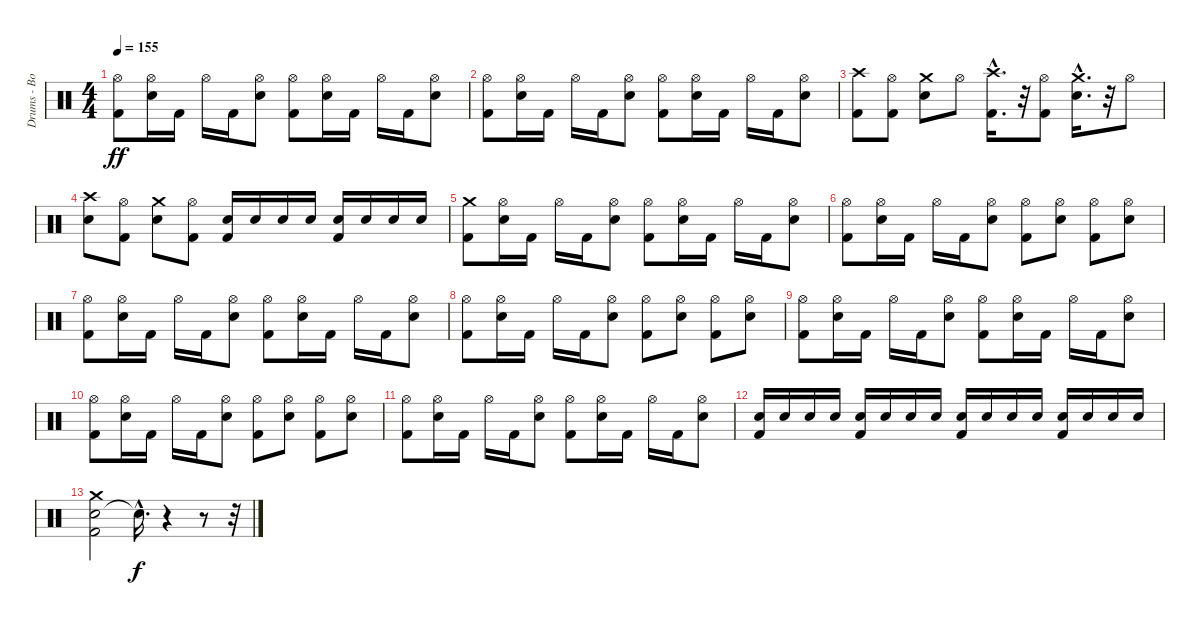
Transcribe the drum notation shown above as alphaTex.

\track ("Drums - Bobby Schayer" "Drums - Bo") {instrument percussion}
\staff {score}
\articulation defaults
\ts (4 4)
\tempo 155
\clef neutral
\ks c
("Kick (hit) 2" "Hi-Hat (open)").8{dy ff} ("Electric Snare (hit)" "Hi-Hat (open)").16 "Kick (hit) 2".16 "Hi-Hat (open)".16 "Kick (hit) 2".16 ("Electric Snare (hit)" "Hi-Hat (open)").8 ("Kick (hit) 2" "Hi-Hat (open)").8 ("Electric Snare (hit)" "Hi-Hat (open)").16 "Kick (hit) 2".16 "Hi-Hat (open)".16 "Kick (hit) 2".16 ("Electric Snare (hit)" "Hi-Hat (open)").8 |
("Kick (hit) 2" "Hi-Hat (open)").8 ("Electric Snare (hit)" "Hi-Hat (open)").16 "Kick (hit) 2".16 "Hi-Hat (open)".16 "Kick (hit) 2".16 ("Electric Snare (hit)" "Hi-Hat (open)").8 ("Kick (hit) 2" "Hi-Hat (open)").8 ("Electric Snare (hit)" "Hi-Hat (open)").16 "Kick (hit) 2".16 "Hi-Hat (open)".16 "Kick (hit) 2".16 ("Electric Snare (hit)" "Hi-Hat (open)").8 |
("Kick (hit) 2" "Crash high (hit)").8 ("Kick (hit) 2" "Hi-Hat (open)").8 ("Electric Snare (hit)" "Crash medium (hit)").8 "Hi-Hat (open)".8 ("Kick (hit) 2" "Crash high (hit)"{hac}).16{d} r.32 ("Kick (hit) 2" "Hi-Hat (open)").8 ("Electric Snare (hit)" "Crash medium (hit)"{hac}).16{d} r.32 "Hi-Hat (open)".8 |
("Electric Snare (hit)" "Crash high (hit)").8 ("Kick (hit) 2" "Hi-Hat (open)").8 ("Electric Snare (hit)" "Crash medium (hit)").8 ("Kick (hit) 2" "Hi-Hat (open)").8 ("Electric Snare (hit)" "Kick (hit) 2").16 "Electric Snare (hit)".16 "Electric Snare (hit)".16 "Electric Snare (hit)".16 ("Electric Snare (hit)" "Kick (hit) 2").16 "Electric Snare (hit)".16 "Electric Snare (hit)".16 "Electric Snare (hit)".16 |
("Kick (hit) 2" "Crash medium (hit)").8 ("Electric Snare (hit)" "Hi-Hat (open)").16 "Kick (hit) 2".16 "Hi-Hat (open)".16 "Kick (hit) 2".16 ("Electric Snare (hit)" "Hi-Hat (open)").8 ("Kick (hit) 2" "Hi-Hat (open)").8 ("Electric Snare (hit)" "Hi-Hat (open)").16 "Kick (hit) 2".16 "Hi-Hat (open)".16 "Kick (hit) 2".16 ("Electric Snare (hit)" "Hi-Hat (open)").8 |
("Kick (hit) 2" "Hi-Hat (open)").8 ("Electric Snare (hit)" "Hi-Hat (open)").16 "Kick (hit) 2".16 "Hi-Hat (open)".16 "Kick (hit) 2".16 ("Electric Snare (hit)" "Hi-Hat (open)").8 ("Kick (hit) 2" "Hi-Hat (open)").8 ("Electric Snare (hit)" "Hi-Hat (open)").8 ("Hi-Hat (open)" "Kick (hit) 2").8 ("Electric Snare (hit)" "Hi-Hat (open)").8 |
("Kick (hit) 2" "Hi-Hat (open)").8 ("Electric Snare (hit)" "Hi-Hat (open)").16 "Kick (hit) 2".16 "Hi-Hat (open)".16 "Kick (hit) 2".16 ("Electric Snare (hit)" "Hi-Hat (open)").8 ("Kick (hit) 2" "Hi-Hat (open)").8 ("Electric Snare (hit)" "Hi-Hat (open)").16 "Kick (hit) 2".16 "Hi-Hat (open)".16 "Kick (hit) 2".16 ("Electric Snare (hit)" "Hi-Hat (open)").8 |
("Kick (hit) 2" "Hi-Hat (open)").8 ("Electric Snare (hit)" "Hi-Hat (open)").16 "Kick (hit) 2".16 "Hi-Hat (open)".16 "Kick (hit) 2".16 ("Electric Snare (hit)" "Hi-Hat (open)").8 ("Hi-Hat (open)" "Kick (hit) 2").8 ("Hi-Hat (open)" "Electric Snare (hit)").8 ("Hi-Hat (open)" "Kick (hit) 2").8 ("Hi-Hat (open)" "Electric Snare (hit)").8 |
("Hi-Hat (open)" "Kick (hit) 2").8 ("Electric Snare (hit)" "Hi-Hat (open)").16 "Kick (hit) 2".16 "Hi-Hat (open)".16 "Kick (hit) 2".16 ("Electric Snare (hit)" "Hi-Hat (open)").8 ("Kick (hit) 2" "Hi-Hat (open)").8 ("Electric Snare (hit)" "Hi-Hat (open)").16 "Kick (hit) 2".16 "Hi-Hat (open)".16 "Kick (hit) 2".16 ("Electric Snare (hit)" "Hi-Hat (open)").8 |
("Kick (hit) 2" "Hi-Hat (open)").8 ("Electric Snare (hit)" "Hi-Hat (open)").16 "Kick (hit) 2".16 "Hi-Hat (open)".16 "Kick (hit) 2".16 ("Electric Snare (hit)" "Hi-Hat (open)").8 ("Hi-Hat (open)" "Kick (hit) 2").8 ("Hi-Hat (open)" "Electric Snare (hit)").8 ("Kick (hit) 2" "Hi-Hat (open)").8 ("Hi-Hat (open)" "Electric Snare (hit)").8 |
("Kick (hit) 2" "Hi-Hat (open)").8 ("Electric Snare (hit)" "Hi-Hat (open)").16 "Kick (hit) 2".16 "Hi-Hat (open)".16 "Kick (hit) 2".16 ("Electric Snare (hit)" "Hi-Hat (open)").8 ("Kick (hit) 2" "Hi-Hat (open)").8 ("Electric Snare (hit)" "Hi-Hat (open)").16 "Kick (hit) 2".16 "Hi-Hat (open)".16 "Kick (hit) 2".16 ("Electric Snare (hit)" "Hi-Hat (open)").8 |
("Electric Snare (hit)" "Kick (hit) 2").16 "Electric Snare (hit)".16 "Electric Snare (hit)".16 "Electric Snare (hit)".16 ("Electric Snare (hit)" "Kick (hit) 2").16 "Electric Snare (hit)".16 "Electric Snare (hit)".16 "Electric Snare (hit)".16 ("Electric Snare (hit)" "Kick (hit) 2").16 "Electric Snare (hit)".16 "Electric Snare (hit)".16 "Electric Snare (hit)".16 ("Electric Snare (hit)" "Kick (hit) 2").16 "Electric Snare (hit)".16 "Electric Snare (hit)".16 "Electric Snare (hit)".16 |
("Electric Snare (hit)" "Kick (hit) 2" "Crash medium (hit)").2 "Snare (hit)"{hac t}.16{d dy f} r.4 r.8 r.32
